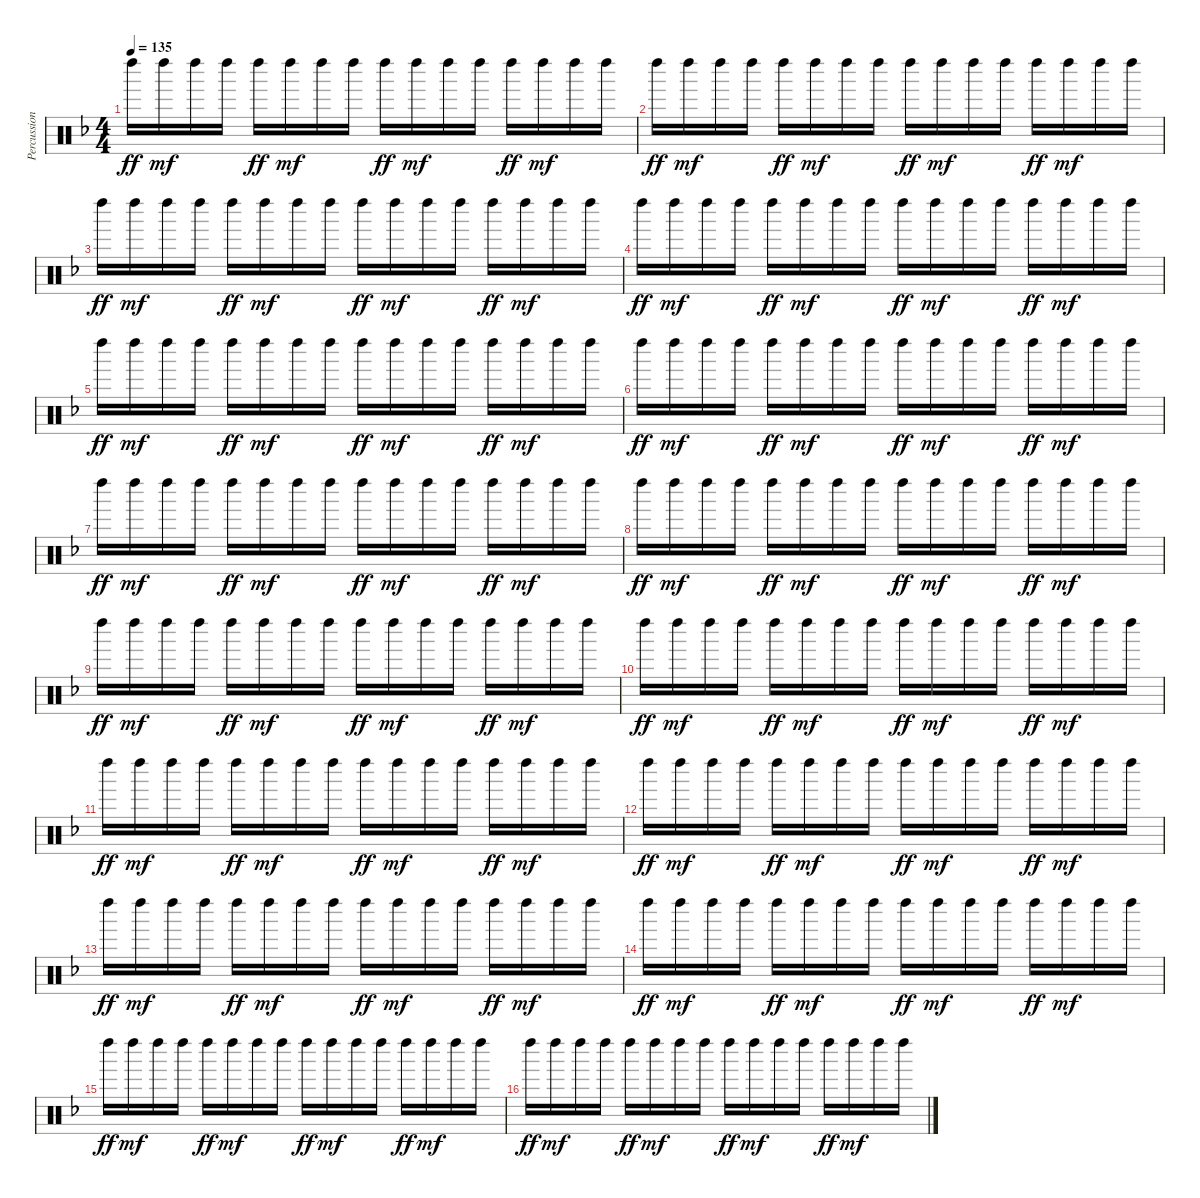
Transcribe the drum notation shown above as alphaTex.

\track ("Percussions" "Percussion") {instrument percussion}
\staff {score}
\articulation defaults
\ts (4 4)
\tempo 135
\clef neutral
\ks f "Left Maraca (hit)".16{dy ff} "Left Maraca (hit)".16{dy mf} "Left Maraca (hit)".16 "Left Maraca (hit)".16 "Left Maraca (hit)".16{dy ff} "Left Maraca (hit)".16{dy mf} "Left Maraca (hit)".16 "Left Maraca (hit)".16 "Left Maraca (hit)".16{dy ff} "Left Maraca (hit)".16{dy mf} "Left Maraca (hit)".16 "Left Maraca (hit)".16 "Left Maraca (hit)".16{dy ff} "Left Maraca (hit)".16{dy mf} "Left Maraca (hit)".16 "Left Maraca (hit)".16
|
"Left Maraca (hit)".16{dy ff} "Left Maraca (hit)".16{dy mf} "Left Maraca (hit)".16 "Left Maraca (hit)".16 "Left Maraca (hit)".16{dy ff} "Left Maraca (hit)".16{dy mf} "Left Maraca (hit)".16 "Left Maraca (hit)".16 "Left Maraca (hit)".16{dy ff} "Left Maraca (hit)".16{dy mf} "Left Maraca (hit)".16 "Left Maraca (hit)".16 "Left Maraca (hit)".16{dy ff} "Left Maraca (hit)".16{dy mf} "Left Maraca (hit)".16 "Left Maraca (hit)".16 |
"Left Maraca (hit)".16{dy ff} "Left Maraca (hit)".16{dy mf} "Left Maraca (hit)".16 "Left Maraca (hit)".16 "Left Maraca (hit)".16{dy ff} "Left Maraca (hit)".16{dy mf} "Left Maraca (hit)".16 "Left Maraca (hit)".16 "Left Maraca (hit)".16{dy ff} "Left Maraca (hit)".16{dy mf} "Left Maraca (hit)".16 "Left Maraca (hit)".16 "Left Maraca (hit)".16{dy ff} "Left Maraca (hit)".16{dy mf} "Left Maraca (hit)".16 "Left Maraca (hit)".16 |
"Left Maraca (hit)".16{dy ff} "Left Maraca (hit)".16{dy mf} "Left Maraca (hit)".16 "Left Maraca (hit)".16 "Left Maraca (hit)".16{dy ff} "Left Maraca (hit)".16{dy mf} "Left Maraca (hit)".16 "Left Maraca (hit)".16 "Left Maraca (hit)".16{dy ff} "Left Maraca (hit)".16{dy mf} "Left Maraca (hit)".16 "Left Maraca (hit)".16 "Left Maraca (hit)".16{dy ff} "Left Maraca (hit)".16{dy mf} "Left Maraca (hit)".16 "Left Maraca (hit)".16 |
"Left Maraca (hit)".16{dy ff} "Left Maraca (hit)".16{dy mf} "Left Maraca (hit)".16 "Left Maraca (hit)".16 "Left Maraca (hit)".16{dy ff} "Left Maraca (hit)".16{dy mf} "Left Maraca (hit)".16 "Left Maraca (hit)".16 "Left Maraca (hit)".16{dy ff} "Left Maraca (hit)".16{dy mf} "Left Maraca (hit)".16 "Left Maraca (hit)".16 "Left Maraca (hit)".16{dy ff} "Left Maraca (hit)".16{dy mf} "Left Maraca (hit)".16 "Left Maraca (hit)".16 |
"Left Maraca (hit)".16{dy ff} "Left Maraca (hit)".16{dy mf} "Left Maraca (hit)".16 "Left Maraca (hit)".16 "Left Maraca (hit)".16{dy ff} "Left Maraca (hit)".16{dy mf} "Left Maraca (hit)".16 "Left Maraca (hit)".16 "Left Maraca (hit)".16{dy ff} "Left Maraca (hit)".16{dy mf} "Left Maraca (hit)".16 "Left Maraca (hit)".16 "Left Maraca (hit)".16{dy ff} "Left Maraca (hit)".16{dy mf} "Left Maraca (hit)".16 "Left Maraca (hit)".16 |
"Left Maraca (hit)".16{dy ff} "Left Maraca (hit)".16{dy mf} "Left Maraca (hit)".16 "Left Maraca (hit)".16 "Left Maraca (hit)".16{dy ff} "Left Maraca (hit)".16{dy mf} "Left Maraca (hit)".16 "Left Maraca (hit)".16 "Left Maraca (hit)".16{dy ff} "Left Maraca (hit)".16{dy mf} "Left Maraca (hit)".16 "Left Maraca (hit)".16 "Left Maraca (hit)".16{dy ff} "Left Maraca (hit)".16{dy mf} "Left Maraca (hit)".16 "Left Maraca (hit)".16 |
"Left Maraca (hit)".16{dy ff} "Left Maraca (hit)".16{dy mf} "Left Maraca (hit)".16 "Left Maraca (hit)".16 "Left Maraca (hit)".16{dy ff} "Left Maraca (hit)".16{dy mf} "Left Maraca (hit)".16 "Left Maraca (hit)".16 "Left Maraca (hit)".16{dy ff} "Left Maraca (hit)".16{dy mf} "Left Maraca (hit)".16 "Left Maraca (hit)".16 "Left Maraca (hit)".16{dy ff} "Left Maraca (hit)".16{dy mf} "Left Maraca (hit)".16 "Left Maraca (hit)".16 |
"Left Maraca (hit)".16{dy ff} "Left Maraca (hit)".16{dy mf} "Left Maraca (hit)".16 "Left Maraca (hit)".16 "Left Maraca (hit)".16{dy ff} "Left Maraca (hit)".16{dy mf} "Left Maraca (hit)".16 "Left Maraca (hit)".16 "Left Maraca (hit)".16{dy ff} "Left Maraca (hit)".16{dy mf} "Left Maraca (hit)".16 "Left Maraca (hit)".16 "Left Maraca (hit)".16{dy ff} "Left Maraca (hit)".16{dy mf} "Left Maraca (hit)".16 "Left Maraca (hit)".16 |
"Left Maraca (hit)".16{dy ff} "Left Maraca (hit)".16{dy mf} "Left Maraca (hit)".16 "Left Maraca (hit)".16 "Left Maraca (hit)".16{dy ff} "Left Maraca (hit)".16{dy mf} "Left Maraca (hit)".16 "Left Maraca (hit)".16 "Left Maraca (hit)".16{dy ff} "Left Maraca (hit)".16{dy mf} "Left Maraca (hit)".16 "Left Maraca (hit)".16 "Left Maraca (hit)".16{dy ff} "Left Maraca (hit)".16{dy mf} "Left Maraca (hit)".16 "Left Maraca (hit)".16 |
"Left Maraca (hit)".16{dy ff} "Left Maraca (hit)".16{dy mf} "Left Maraca (hit)".16 "Left Maraca (hit)".16 "Left Maraca (hit)".16{dy ff} "Left Maraca (hit)".16{dy mf} "Left Maraca (hit)".16 "Left Maraca (hit)".16 "Left Maraca (hit)".16{dy ff} "Left Maraca (hit)".16{dy mf} "Left Maraca (hit)".16 "Left Maraca (hit)".16 "Left Maraca (hit)".16{dy ff} "Left Maraca (hit)".16{dy mf} "Left Maraca (hit)".16 "Left Maraca (hit)".16 |
"Left Maraca (hit)".16{dy ff} "Left Maraca (hit)".16{dy mf} "Left Maraca (hit)".16 "Left Maraca (hit)".16 "Left Maraca (hit)".16{dy ff} "Left Maraca (hit)".16{dy mf} "Left Maraca (hit)".16 "Left Maraca (hit)".16 "Left Maraca (hit)".16{dy ff} "Left Maraca (hit)".16{dy mf} "Left Maraca (hit)".16 "Left Maraca (hit)".16 "Left Maraca (hit)".16{dy ff} "Left Maraca (hit)".16{dy mf} "Left Maraca (hit)".16 "Left Maraca (hit)".16 |
"Left Maraca (hit)".16{dy ff} "Left Maraca (hit)".16{dy mf} "Left Maraca (hit)".16 "Left Maraca (hit)".16 "Left Maraca (hit)".16{dy ff} "Left Maraca (hit)".16{dy mf} "Left Maraca (hit)".16 "Left Maraca (hit)".16 "Left Maraca (hit)".16{dy ff} "Left Maraca (hit)".16{dy mf} "Left Maraca (hit)".16 "Left Maraca (hit)".16 "Left Maraca (hit)".16{dy ff} "Left Maraca (hit)".16{dy mf} "Left Maraca (hit)".16 "Left Maraca (hit)".16 |
"Left Maraca (hit)".16{dy ff} "Left Maraca (hit)".16{dy mf} "Left Maraca (hit)".16 "Left Maraca (hit)".16 "Left Maraca (hit)".16{dy ff} "Left Maraca (hit)".16{dy mf} "Left Maraca (hit)".16 "Left Maraca (hit)".16 "Left Maraca (hit)".16{dy ff} "Left Maraca (hit)".16{dy mf} "Left Maraca (hit)".16 "Left Maraca (hit)".16 "Left Maraca (hit)".16{dy ff} "Left Maraca (hit)".16{dy mf} "Left Maraca (hit)".16 "Left Maraca (hit)".16 |
"Left Maraca (hit)".16{dy ff} "Left Maraca (hit)".16{dy mf} "Left Maraca (hit)".16 "Left Maraca (hit)".16 "Left Maraca (hit)".16{dy ff} "Left Maraca (hit)".16{dy mf} "Left Maraca (hit)".16 "Left Maraca (hit)".16 "Left Maraca (hit)".16{dy ff} "Left Maraca (hit)".16{dy mf} "Left Maraca (hit)".16 "Left Maraca (hit)".16 "Left Maraca (hit)".16{dy ff} "Left Maraca (hit)".16{dy mf} "Left Maraca (hit)".16 "Left Maraca (hit)".16 |
"Left Maraca (hit)".16{dy ff} "Left Maraca (hit)".16{dy mf} "Left Maraca (hit)".16 "Left Maraca (hit)".16 "Left Maraca (hit)".16{dy ff} "Left Maraca (hit)".16{dy mf} "Left Maraca (hit)".16 "Left Maraca (hit)".16 "Left Maraca (hit)".16{dy ff} "Left Maraca (hit)".16{dy mf} "Left Maraca (hit)".16 "Left Maraca (hit)".16 "Left Maraca (hit)".16{dy ff} "Left Maraca (hit)".16{dy mf} "Left Maraca (hit)".16 "Left Maraca (hit)".16
